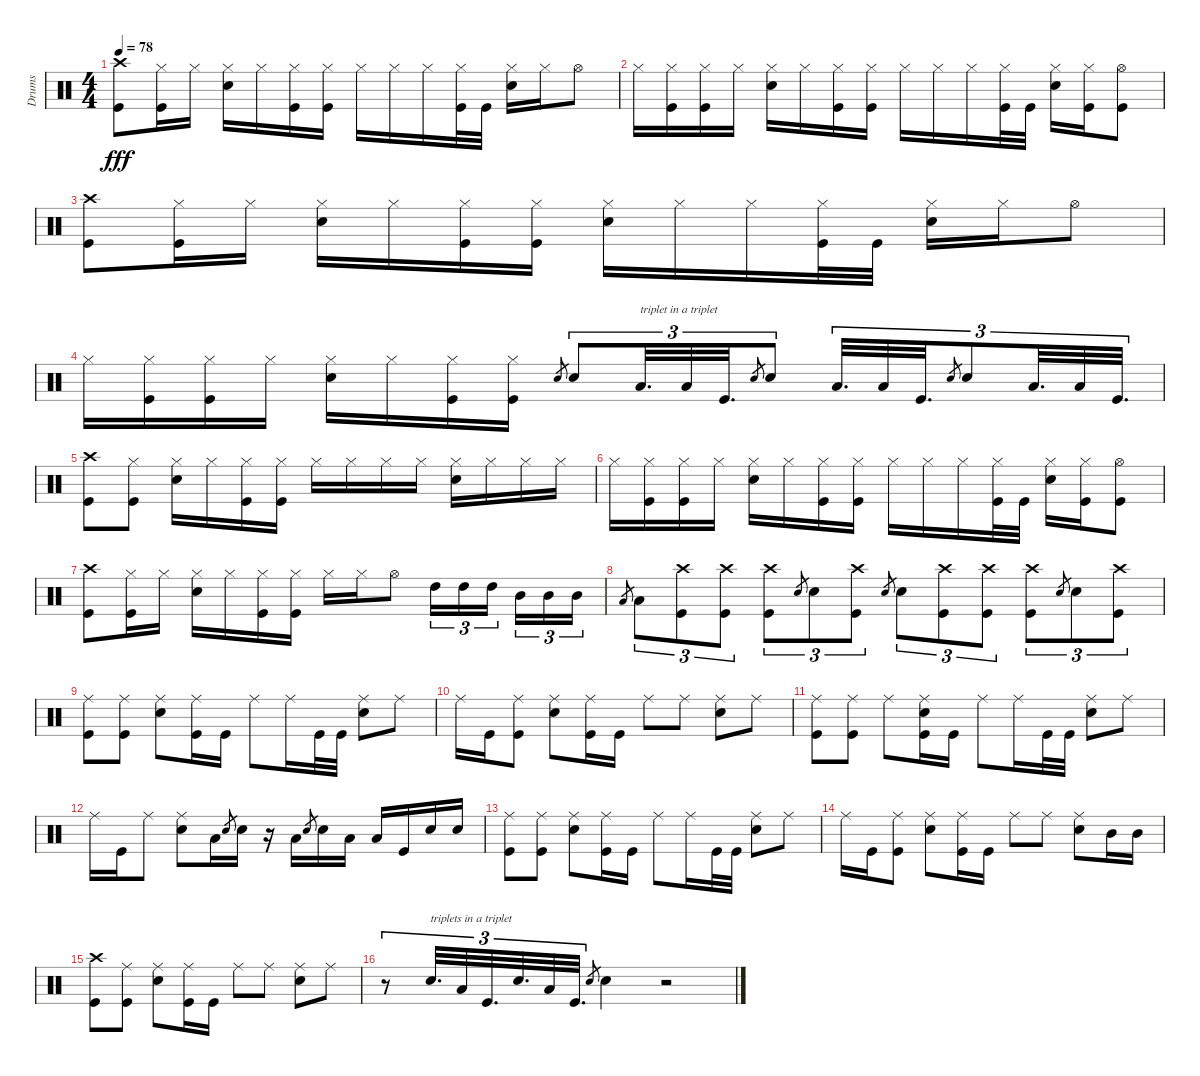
\track ("Drums" "Drums") {instrument percussion}
\staff {score}
\articulation defaults
\ts (4 4)
\tempo 78
\clef neutral
\ks c
("Crash high (hit)" "Kick (hit)").8{dy fff} ("Hi-Hat (closed)" "Kick (hit)").16 "Hi-Hat (closed)".16 ("Hi-Hat (closed)" "Snare (hit) 2").16 "Hi-Hat (closed)".16 ("Hi-Hat (closed)" "Kick (hit)").16 ("Hi-Hat (closed)" "Kick (hit)").16 "Hi-Hat (closed)".16 "Hi-Hat (closed)".16 "Hi-Hat (closed)".16 ("Hi-Hat (closed)" "Kick (hit)").32 "Kick (hit)".32 ("Hi-Hat (closed)" "Snare (hit) 2").16 "Hi-Hat (closed)".16 "Hi-Hat (open)".8 |
"Hi-Hat (closed)".16 ("Hi-Hat (closed)" "Kick (hit)").16 ("Hi-Hat (closed)" "Kick (hit)").16 "Hi-Hat (closed)".16 ("Hi-Hat (closed)" "Snare (hit) 2").16 "Hi-Hat (closed)".16 ("Hi-Hat (closed)" "Kick (hit)").16 ("Hi-Hat (closed)" "Kick (hit)").16 "Hi-Hat (closed)".16 "Hi-Hat (closed)".16 "Hi-Hat (closed)".16 ("Hi-Hat (closed)" "Kick (hit)").32 "Kick (hit)".32 ("Hi-Hat (closed)" "Snare (hit) 2").16 ("Hi-Hat (closed)" "Kick (hit)").16 ("Hi-Hat (open)" "Kick (hit)").8 |
("Crash high (hit)" "Kick (hit)").8 ("Hi-Hat (closed)" "Kick (hit)").16 "Hi-Hat (closed)".16 ("Hi-Hat (closed)" "Snare (hit) 2").16 "Hi-Hat (closed)".16 ("Hi-Hat (closed)" "Kick (hit)").16 ("Hi-Hat (closed)" "Kick (hit)").16 ("Hi-Hat (closed)" "Snare (hit) 2").16 "Hi-Hat (closed)".16 "Hi-Hat (closed)".16 ("Hi-Hat (closed)" "Kick (hit)").32 "Kick (hit)".32 ("Hi-Hat (closed)" "Snare (hit) 2").16 "Hi-Hat (closed)".16 "Hi-Hat (open)".8 |
"Hi-Hat (closed)".16 ("Hi-Hat (closed)" "Kick (hit)").16 ("Hi-Hat (closed)" "Kick (hit)").16 "Hi-Hat (closed)".16 ("Hi-Hat (closed)" "Snare (hit) 2").16 "Hi-Hat (closed)".16 ("Hi-Hat (closed)" "Kick (hit)").16 ("Hi-Hat (closed)" "Kick (hit)").16 "Snare (hit) 2".8{gr} "Snare (hit) 2".8{tu (3 2)} "Low Tom (hit)".32{d tu (3 2) txt "triplet in a triplet"} "Low Tom (hit)".32{tu (3 2)} "Kick (hit)".32{d tu (3 2)} "Snare (hit) 2".8{gr} "Snare (hit) 2".8{tu (3 2)} "Low Tom (hit)".32{d tu (3 2)} "Low Tom (hit)".32{tu (3 2)} "Kick (hit)".32{d tu (3 2)} "Snare (hit) 2".8{gr} "Snare (hit) 2".8{tu (3 2)} "Low Tom (hit)".32{d tu (3 2)} "Low Tom (hit)".32{tu (3 2)} "Kick (hit)".32{d tu (3 2)} |
("Crash high (hit)" "Kick (hit)").8 ("Hi-Hat (closed)" "Kick (hit)").8 ("Hi-Hat (closed)" "Snare (hit) 2").16 "Hi-Hat (closed)".16 ("Hi-Hat (closed)" "Kick (hit)").16 ("Hi-Hat (closed)" "Kick (hit)").16 "Hi-Hat (closed)".16 "Hi-Hat (closed)".16 "Hi-Hat (closed)".16 "Hi-Hat (closed)".16 ("Hi-Hat (closed)" "Snare (hit) 2").16 "Hi-Hat (closed)".16 "Hi-Hat (closed)".16 "Hi-Hat (closed)".16 |
"Hi-Hat (closed)".16 ("Hi-Hat (closed)" "Kick (hit)").16 ("Hi-Hat (closed)" "Kick (hit)").16 "Hi-Hat (closed)".16 ("Hi-Hat (closed)" "Snare (hit) 2").16 "Hi-Hat (closed)".16 ("Hi-Hat (closed)" "Kick (hit)").16 ("Hi-Hat (closed)" "Kick (hit)").16 "Hi-Hat (closed)".16 "Hi-Hat (closed)".16 "Hi-Hat (closed)".16 ("Hi-Hat (closed)" "Kick (hit)").32 "Kick (hit)".32 ("Hi-Hat (closed)" "Snare (hit) 2").16 ("Hi-Hat (closed)" "Kick (hit)").16 ("Hi-Hat (open)" "Kick (hit)").8 |
("Crash high (hit)" "Kick (hit)").8 ("Hi-Hat (closed)" "Kick (hit)").16 "Hi-Hat (closed)".16 ("Hi-Hat (closed)" "Snare (hit) 2").16 "Hi-Hat (closed)".16 ("Hi-Hat (closed)" "Kick (hit)").16 ("Hi-Hat (closed)" "Kick (hit)").16 "Hi-Hat (closed)".16 "Hi-Hat (closed)".16 "Hi-Hat (open)".8 "High Tom (hit)".16{tu (3 2)} "High Tom (hit)".16{tu (3 2)} "High Tom (hit)".16{tu (3 2)} "Mid Tom (hit)".16{tu (3 2)} "Mid Tom (hit)".16{tu (3 2)} "Mid Tom (hit)".16{tu (3 2)} |
"Low Tom (hit)".8{gr} "Low Tom (hit)".8{tu (3 2)} ("Crash high (hit)" "Kick (hit)").8{tu (3 2)} ("Crash high (hit)" "Kick (hit)").8{tu (3 2)} ("Crash high (hit)" "Kick (hit)").8{tu (3 2)} "Snare (hit) 2".8{gr} "Snare (hit) 2".8{tu (3 2)} ("Crash high (hit)" "Kick (hit)").8{tu (3 2)} "Snare (hit) 2".8{gr} "Snare (hit) 2".8{tu (3 2)} ("Crash high (hit)" "Kick (hit)").8{tu (3 2)} ("Crash high (hit)" "Kick (hit)").8{tu (3 2)} ("Crash high (hit)" "Kick (hit)").8{tu (3 2)} "Snare (hit) 2".8{gr} "Snare (hit) 2".8{tu (3 2)} ("Crash high (hit)" "Kick (hit)").8{tu (3 2)} |
("Ride (middle)" "Kick (hit)").8 ("Ride (middle)" "Kick (hit)").8 ("Ride (middle)" "Snare (hit) 2").8 ("Ride (middle)" "Kick (hit)").16 "Kick (hit)".16 "Ride (middle)".8 "Ride (middle)".16 "Kick (hit)".32 "Kick (hit)".32 ("Ride (middle)" "Snare (hit) 2").8 "Ride (middle)".8 |
"Ride (middle)".16 "Kick (hit)".16 ("Ride (middle)" "Kick (hit)").8 ("Ride (middle)" "Snare (hit) 2").8 ("Ride (middle)" "Kick (hit)").16 "Kick (hit)".16 "Ride (middle)".8 "Ride (middle)".8 ("Ride (middle)" "Snare (hit) 2").8 "Ride (middle)".8 |
("Ride (middle)" "Kick (hit)").8 ("Ride (middle)" "Kick (hit)").8 "Ride (middle)".8 ("Ride (middle)" "Snare (hit) 2" "Kick (hit)").16 "Kick (hit)".16 "Ride (middle)".8 "Ride (middle)".16 "Kick (hit)".32 "Kick (hit)".32 ("Ride (middle)" "Snare (hit) 2").8 "Ride (middle)".8 |
"Ride (middle)".16 "Kick (hit)".16 "Ride (middle)".8 ("Ride (middle)" "Snare (hit) 2").8 "Low Tom (hit)".16 "Snare (hit) 2".8{gr} "Snare (hit) 2".16 r.16 "Low Tom (hit)".16 "Snare (hit) 2".8{gr} "Snare (hit) 2".16 "Low Tom (hit)".16 "Low Tom (hit)".16 "Kick (hit)".16 "Snare (hit) 2".16 "Snare (hit) 2".16 |
("Ride (middle)" "Kick (hit)").8 ("Ride (middle)" "Kick (hit)").8 ("Ride (middle)" "Snare (hit) 2").8 ("Ride (middle)" "Kick (hit)").16 "Kick (hit)".16 "Ride (middle)".8 "Ride (middle)".16 "Kick (hit)".32 "Kick (hit)".32 ("Ride (middle)" "Snare (hit) 2").8 "Ride (middle)".8 |
"Ride (middle)".16 "Kick (hit)".16 ("Ride (middle)" "Kick (hit)").8 ("Ride (middle)" "Snare (hit) 2").8 ("Ride (middle)" "Kick (hit)").16 "Kick (hit)".16 "Ride (middle)".8 "Ride (middle)".8 ("Ride (middle)" "Snare (hit) 2").8 "Mid Tom (hit)".16 "Mid Tom (hit)".16 |
("Crash high (hit)" "Kick (hit)").8 ("Ride (middle)" "Kick (hit)").8 ("Ride (middle)" "Snare (hit) 2").8 ("Ride (middle)" "Kick (hit)").16 "Kick (hit)".16 "Ride (middle)".8 "Ride (middle)".8 ("Ride (middle)" "Snare (hit) 2").8 "Ride (middle)".8 |
r.8{tu (3 2)} "Snare (hit) 2".32{d tu (3 2) txt "triplets in a triplet"} "Low Tom (hit)".32{tu (3 2)} "Kick (hit)".32{d tu (3 2)} "Snare (hit) 2".32{d tu (3 2)} "Low Tom (hit)".32{tu (3 2)} "Kick (hit)".32{d tu (3 2)} "Snare (hit) 2".8{gr} "Snare (hit) 2".4 r.2
